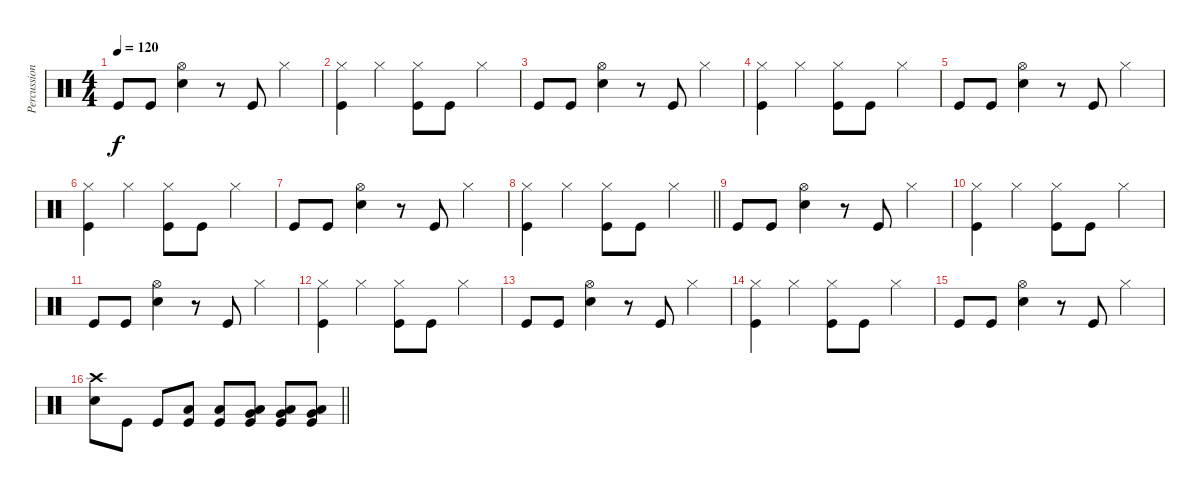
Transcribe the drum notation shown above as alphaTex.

\track ("Percussion" "Percussion") {instrument percussion}
\staff {score}
\articulation defaults
\ts (4 4)
\tempo 120
\clef neutral
\ks c "Kick (hit)".8{dy f} "Kick (hit)".8
("Hi-Hat (open)" "Snare (hit) 2").4 r.8 "Kick (hit)".8 "Hi-Hat (closed)".4 |
("Hi-Hat (closed)" "Kick (hit)").4 "Hi-Hat (closed)".4 ("Hi-Hat (closed)" "Kick (hit)").8 "Kick (hit)".8 "Hi-Hat (closed)".4 |
"Kick (hit)".8 "Kick (hit)".8 ("Hi-Hat (open)" "Snare (hit) 2").4 r.8 "Kick (hit)".8 "Hi-Hat (closed)".4 |
("Hi-Hat (closed)" "Kick (hit)").4 "Hi-Hat (closed)".4 ("Hi-Hat (closed)" "Kick (hit)").8 "Kick (hit)".8 "Hi-Hat (closed)".4 |
"Kick (hit)".8 "Kick (hit)".8 ("Hi-Hat (open)" "Snare (hit) 2").4 r.8 "Kick (hit)".8 "Hi-Hat (closed)".4 |
("Hi-Hat (closed)" "Kick (hit)").4 "Hi-Hat (closed)".4 ("Hi-Hat (closed)" "Kick (hit)").8 "Kick (hit)".8 "Hi-Hat (closed)".4 |
"Kick (hit)".8 "Kick (hit)".8 ("Hi-Hat (open)" "Snare (hit) 2").4 r.8 "Kick (hit)".8 "Hi-Hat (closed)".4 |
\barLineRight lightlight
("Hi-Hat (closed)" "Kick (hit)").4 "Hi-Hat (closed)".4 ("Hi-Hat (closed)" "Kick (hit)").8 "Kick (hit)".8 "Hi-Hat (closed)".4 |
"Kick (hit)".8 "Kick (hit)".8 ("Hi-Hat (open)" "Snare (hit) 2").4 r.8 "Kick (hit)".8 "Hi-Hat (closed)".4 |
("Hi-Hat (closed)" "Kick (hit)").4 "Hi-Hat (closed)".4 ("Hi-Hat (closed)" "Kick (hit)").8 "Kick (hit)".8 "Hi-Hat (closed)".4 |
"Kick (hit)".8 "Kick (hit)".8 ("Hi-Hat (open)" "Snare (hit) 2").4 r.8 "Kick (hit)".8 "Hi-Hat (closed)".4 |
("Hi-Hat (closed)" "Kick (hit)").4 "Hi-Hat (closed)".4 ("Hi-Hat (closed)" "Kick (hit)").8 "Kick (hit)".8 "Hi-Hat (closed)".4 |
"Kick (hit)".8 "Kick (hit)".8 ("Hi-Hat (open)" "Snare (hit) 2").4 r.8 "Kick (hit)".8 "Hi-Hat (closed)".4 |
("Hi-Hat (closed)" "Kick (hit)").4 "Hi-Hat (closed)".4 ("Hi-Hat (closed)" "Kick (hit)").8 "Kick (hit)".8 "Hi-Hat (closed)".4 |
"Kick (hit)".8 "Kick (hit)".8 ("Hi-Hat (open)" "Snare (hit) 2").4 r.8 "Kick (hit)".8 "Hi-Hat (closed)".4 |
\barLineRight lightlight
("Crash high (hit)" "Snare (hit) 2").8 "Kick (hit)".8 "Kick (hit)".8 ("Low Floor Tom (hit)" "Kick (hit)").8 ("Low Floor Tom (hit)" "Kick (hit)").8 ("Very Low Tom (hit)" "Low Floor Tom (hit)" "Kick (hit)").8 ("Very Low Tom (hit)" "Low Floor Tom (hit)" "Kick (hit)").8 ("Very Low Tom (hit)" "Low Floor Tom (hit)" "Kick (hit)").8
